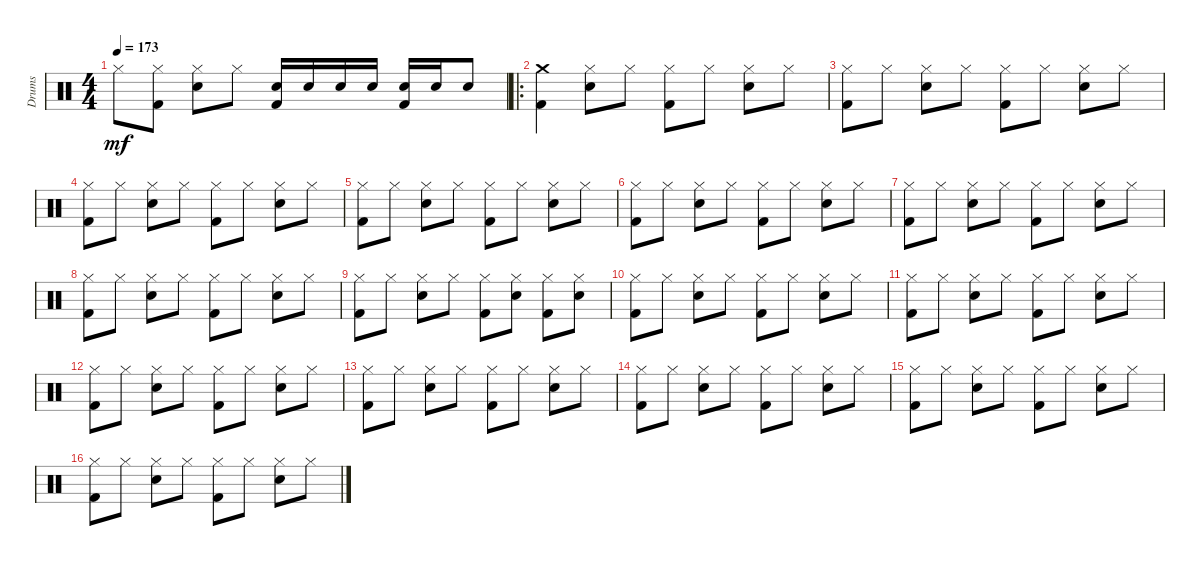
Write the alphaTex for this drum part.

\track ("Drums" "Drums") {instrument percussion}
\staff {score}
\articulation defaults
\ts (4 4)
\tempo 173
\clef neutral
\ks c "Hi-Hat (closed)".8{dy mf}
("Hi-Hat (closed)" "Kick (hit) 2").8 ("Hi-Hat (closed)" "Electric Snare (hit)").8 "Hi-Hat (closed)".8 ("Electric Snare (hit)" "Kick (hit) 2").16 "Electric Snare (hit)".16 "Electric Snare (hit)".16 "Electric Snare (hit)".16 ("Electric Snare (hit)" "Kick (hit) 2").16 "Electric Snare (hit)".16 "Electric Snare (hit)".8 |
\ro
("Crash medium (hit)" "Kick (hit) 2").4 ("Hi-Hat (closed)" "Electric Snare (hit)").8 "Hi-Hat (closed)".8 ("Hi-Hat (closed)" "Kick (hit) 2").8 "Hi-Hat (closed)".8 ("Hi-Hat (closed)" "Electric Snare (hit)").8 "Hi-Hat (closed)".8 |
("Hi-Hat (closed)" "Kick (hit) 2").8 "Hi-Hat (closed)".8 ("Hi-Hat (closed)" "Electric Snare (hit)").8 "Hi-Hat (closed)".8 ("Hi-Hat (closed)" "Kick (hit) 2").8 "Hi-Hat (closed)".8 ("Hi-Hat (closed)" "Electric Snare (hit)").8 "Hi-Hat (closed)".8 |
("Hi-Hat (closed)" "Kick (hit) 2").8 "Hi-Hat (closed)".8 ("Hi-Hat (closed)" "Electric Snare (hit)").8 "Hi-Hat (closed)".8 ("Hi-Hat (closed)" "Kick (hit) 2").8 "Hi-Hat (closed)".8 ("Hi-Hat (closed)" "Electric Snare (hit)").8 "Hi-Hat (closed)".8 |
("Hi-Hat (closed)" "Kick (hit) 2").8 "Hi-Hat (closed)".8 ("Hi-Hat (closed)" "Electric Snare (hit)").8 "Hi-Hat (closed)".8 ("Hi-Hat (closed)" "Kick (hit) 2").8 "Hi-Hat (closed)".8 ("Hi-Hat (closed)" "Electric Snare (hit)").8 "Hi-Hat (closed)".8 |
("Hi-Hat (closed)" "Kick (hit) 2").8 "Hi-Hat (closed)".8 ("Hi-Hat (closed)" "Electric Snare (hit)").8 "Hi-Hat (closed)".8 ("Hi-Hat (closed)" "Kick (hit) 2").8 "Hi-Hat (closed)".8 ("Hi-Hat (closed)" "Electric Snare (hit)").8 "Hi-Hat (closed)".8 |
("Hi-Hat (closed)" "Kick (hit) 2").8 "Hi-Hat (closed)".8 ("Hi-Hat (closed)" "Electric Snare (hit)").8 "Hi-Hat (closed)".8 ("Hi-Hat (closed)" "Kick (hit) 2").8 "Hi-Hat (closed)".8 ("Hi-Hat (closed)" "Electric Snare (hit)").8 "Hi-Hat (closed)".8 |
("Hi-Hat (closed)" "Kick (hit) 2").8 "Hi-Hat (closed)".8 ("Hi-Hat (closed)" "Electric Snare (hit)").8 "Hi-Hat (closed)".8 ("Hi-Hat (closed)" "Kick (hit) 2").8 "Hi-Hat (closed)".8 ("Hi-Hat (closed)" "Electric Snare (hit)").8 "Hi-Hat (closed)".8 |
("Hi-Hat (closed)" "Kick (hit) 2").8 "Hi-Hat (closed)".8 ("Hi-Hat (closed)" "Electric Snare (hit)").8 "Hi-Hat (closed)".8 ("Hi-Hat (closed)" "Kick (hit) 2").8 ("Hi-Hat (closed)" "Electric Snare (hit)").8 ("Hi-Hat (closed)" "Kick (hit) 2").8 ("Hi-Hat (closed)" "Electric Snare (hit)").8 |
("Hi-Hat (closed)" "Kick (hit) 2").8 "Hi-Hat (closed)".8 ("Hi-Hat (closed)" "Electric Snare (hit)").8 "Hi-Hat (closed)".8 ("Hi-Hat (closed)" "Kick (hit) 2").8 "Hi-Hat (closed)".8 ("Hi-Hat (closed)" "Electric Snare (hit)").8 "Hi-Hat (closed)".8 |
("Hi-Hat (closed)" "Kick (hit) 2").8 "Hi-Hat (closed)".8 ("Hi-Hat (closed)" "Electric Snare (hit)").8 "Hi-Hat (closed)".8 ("Hi-Hat (closed)" "Kick (hit) 2").8 "Hi-Hat (closed)".8 ("Hi-Hat (closed)" "Electric Snare (hit)").8 "Hi-Hat (closed)".8 |
("Hi-Hat (closed)" "Kick (hit) 2").8 "Hi-Hat (closed)".8 ("Hi-Hat (closed)" "Electric Snare (hit)").8 "Hi-Hat (closed)".8 ("Hi-Hat (closed)" "Kick (hit) 2").8 "Hi-Hat (closed)".8 ("Hi-Hat (closed)" "Electric Snare (hit)").8 "Hi-Hat (closed)".8 |
("Hi-Hat (closed)" "Kick (hit) 2").8 "Hi-Hat (closed)".8 ("Hi-Hat (closed)" "Electric Snare (hit)").8 "Hi-Hat (closed)".8 ("Hi-Hat (closed)" "Kick (hit) 2").8 "Hi-Hat (closed)".8 ("Hi-Hat (closed)" "Electric Snare (hit)").8 "Hi-Hat (closed)".8 |
("Hi-Hat (closed)" "Kick (hit) 2").8 "Hi-Hat (closed)".8 ("Hi-Hat (closed)" "Electric Snare (hit)").8 "Hi-Hat (closed)".8 ("Hi-Hat (closed)" "Kick (hit) 2").8 "Hi-Hat (closed)".8 ("Hi-Hat (closed)" "Electric Snare (hit)").8 "Hi-Hat (closed)".8 |
("Hi-Hat (closed)" "Kick (hit) 2").8 "Hi-Hat (closed)".8 ("Hi-Hat (closed)" "Electric Snare (hit)").8 "Hi-Hat (closed)".8 ("Hi-Hat (closed)" "Kick (hit) 2").8 "Hi-Hat (closed)".8 ("Hi-Hat (closed)" "Electric Snare (hit)").8 "Hi-Hat (closed)".8 |
("Hi-Hat (closed)" "Kick (hit) 2").8 "Hi-Hat (closed)".8 ("Hi-Hat (closed)" "Electric Snare (hit)").8 "Hi-Hat (closed)".8 ("Hi-Hat (closed)" "Kick (hit) 2").8 "Hi-Hat (closed)".8 ("Hi-Hat (closed)" "Electric Snare (hit)").8 "Hi-Hat (closed)".8
